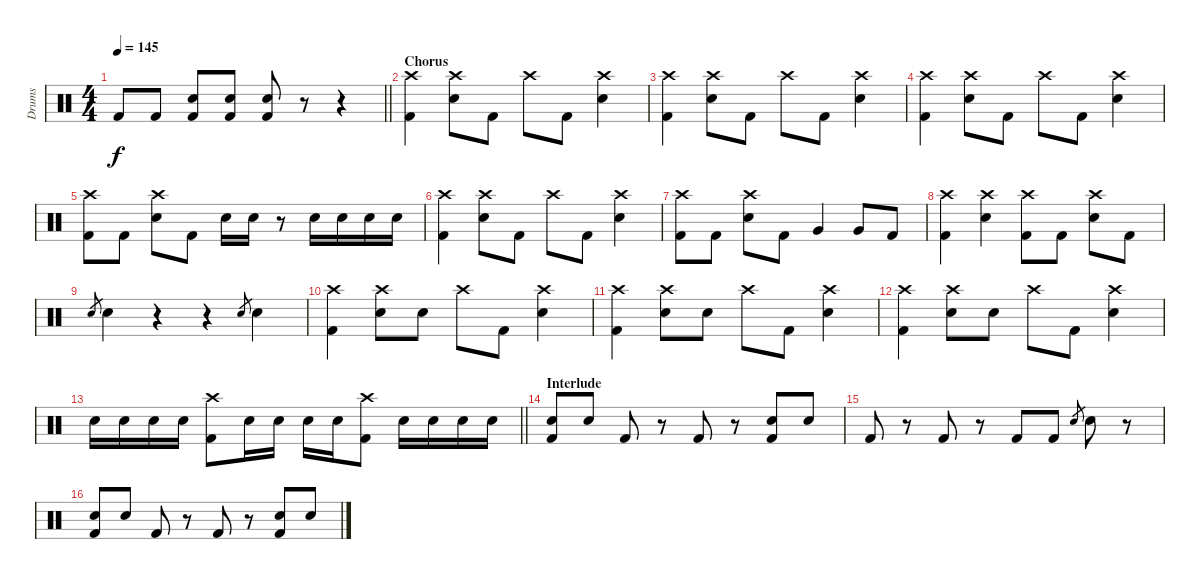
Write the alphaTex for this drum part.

\track ("Drums" "Drums") {instrument percussion}
\staff {score}
\articulation defaults
\ts (4 4)
\tempo 145
\clef neutral
\barLineRight lightlight
\ks c "Kick (hit) 2".8{dy f} "Kick (hit) 2".8
("Electric Snare (hit)" "Kick (hit) 2").8 ("Electric Snare (hit)" "Kick (hit) 2").8 ("Electric Snare (hit)" "Kick (hit) 2").8 r.8 r.4 |
\section ("" "Chorus")
("Crash high (hit)" "Kick (hit) 2").4 ("Crash high (hit)" "Electric Snare (hit)").8 "Kick (hit) 2".8 "Crash high (hit)".8 "Kick (hit) 2".8 ("Crash high (hit)" "Electric Snare (hit)").4 |
("Crash high (hit)" "Kick (hit) 2").4 ("Crash high (hit)" "Electric Snare (hit)").8 "Kick (hit) 2".8 "Crash high (hit)".8 "Kick (hit) 2".8 ("Crash high (hit)" "Electric Snare (hit)").4 |
("Crash high (hit)" "Kick (hit) 2").4 ("Crash high (hit)" "Electric Snare (hit)").8 "Kick (hit) 2".8 "Crash high (hit)".8 "Kick (hit) 2".8 ("Crash high (hit)" "Electric Snare (hit)").4 |
("Crash high (hit)" "Kick (hit) 2").8 "Kick (hit) 2".8 ("Crash high (hit)" "Electric Snare (hit)").8 "Kick (hit) 2".8 "Electric Snare (hit)".16 "Electric Snare (hit)".16 r.8 "Electric Snare (hit)".16 "Electric Snare (hit)".16 "Electric Snare (hit)".16 "Electric Snare (hit)".16 |
("Crash high (hit)" "Kick (hit) 2").4 ("Crash high (hit)" "Electric Snare (hit)").8 "Kick (hit) 2".8 "Crash high (hit)".8 "Kick (hit) 2".8 ("Crash high (hit)" "Electric Snare (hit)").4 |
("Crash high (hit)" "Kick (hit) 2").8 "Kick (hit) 2".8 ("Crash high (hit)" "Electric Snare (hit)").8 "Kick (hit) 2".8 "Very Low Tom (hit)".4 "Very Low Tom (hit)".8 "Kick (hit) 2".8 |
("Crash high (hit)" "Kick (hit) 2").4 ("Crash high (hit)" "Electric Snare (hit)").4 ("Crash high (hit)" "Kick (hit) 2").8 "Kick (hit) 2".8 ("Crash high (hit)" "Electric Snare (hit)").8 "Kick (hit) 2".8 |
"Electric Snare (hit)".8{gr} "Electric Snare (hit)".4 r.4 r.4 "Electric Snare (hit)".8{gr} "Electric Snare (hit)".4 |
("Crash high (hit)" "Kick (hit) 2").4 ("Crash high (hit)" "Electric Snare (hit)").8 "Electric Snare (hit)".8 "Crash high (hit)".8 "Kick (hit) 2".8 ("Crash high (hit)" "Electric Snare (hit)").4 |
("Crash high (hit)" "Kick (hit) 2").4 ("Crash high (hit)" "Electric Snare (hit)").8 "Electric Snare (hit)".8 "Crash high (hit)".8 "Kick (hit) 2".8 ("Crash high (hit)" "Electric Snare (hit)").4 |
("Crash high (hit)" "Kick (hit) 2").4 ("Crash high (hit)" "Electric Snare (hit)").8 "Electric Snare (hit)".8 "Crash high (hit)".8 "Kick (hit) 2".8 ("Crash high (hit)" "Electric Snare (hit)").4 |
\barLineRight lightlight "Electric Snare (hit)".16 "Electric Snare (hit)".16 "Electric Snare (hit)".16 "Electric Snare (hit)".16
("Crash high (hit)" "Kick (hit) 2").8 "Electric Snare (hit)".16 "Electric Snare (hit)".16 "Electric Snare (hit)".16 "Electric Snare (hit)".16 ("Crash high (hit)" "Kick (hit) 2").8 "Electric Snare (hit)".16 "Electric Snare (hit)".16 "Electric Snare (hit)".16 "Electric Snare (hit)".16 |
\section ("" "Interlude")
("Electric Snare (hit)" "Kick (hit) 2").8 "Electric Snare (hit)".8 "Kick (hit) 2".8 r.8 "Kick (hit) 2".8 r.8 ("Electric Snare (hit)" "Kick (hit) 2").8 "Electric Snare (hit)".8 |
"Kick (hit) 2".8 r.8 "Kick (hit) 2".8 r.8 "Kick (hit) 2".8 "Kick (hit) 2".8 "Electric Snare (hit)".8{gr} "Electric Snare (hit)".8 r.8 |
("Electric Snare (hit)" "Kick (hit) 2").8 "Electric Snare (hit)".8 "Kick (hit) 2".8 r.8 "Kick (hit) 2".8 r.8 ("Electric Snare (hit)" "Kick (hit) 2").8 "Electric Snare (hit)".8
